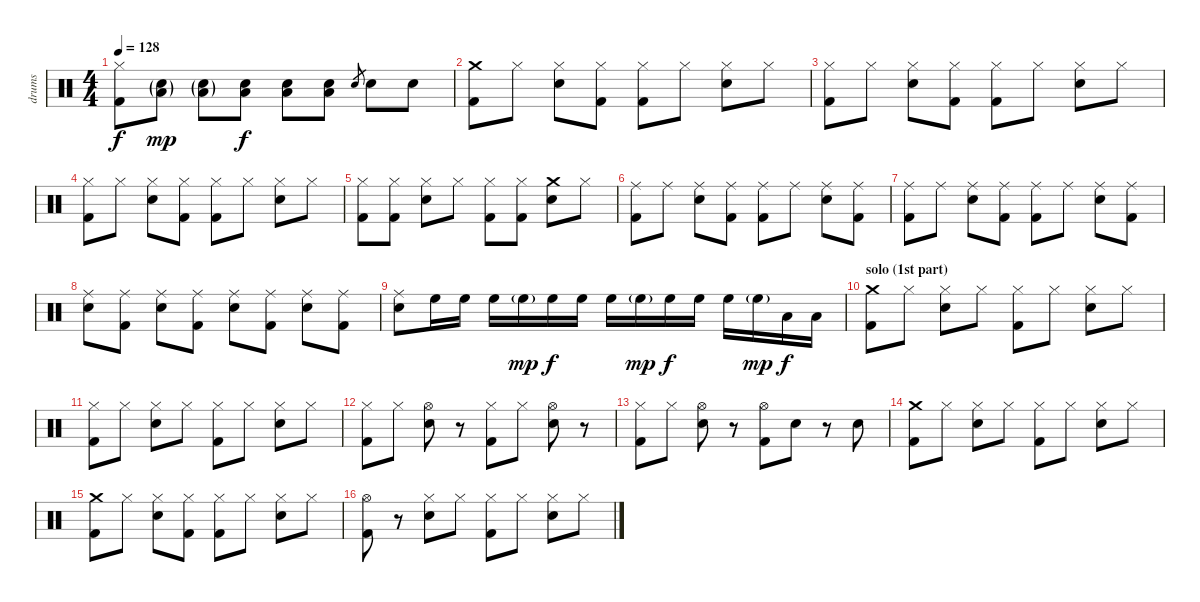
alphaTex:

\track ("drums" "drums") {instrument percussion}
\staff {score}
\articulation defaults
\ts (4 4)
\tempo 128
\clef neutral
\ks c
("Hi-Hat (closed)" "Kick (hit) 2").8{dy f} ("Snare (hit) 2"{g} "Low Floor Tom (hit)"{g}).8{dy mp} ("Snare (hit) 2"{g} "Low Floor Tom (hit)"{g}).8 ("Snare (hit) 2" "Low Floor Tom (hit)").8{dy f} ("Snare (hit) 2" "Low Floor Tom (hit)").8 ("Snare (hit) 2" "Low Floor Tom (hit)").8 "Snare (hit) 2".8{gr} "Snare (hit) 2".8 "Snare (hit) 2".8 |
("Crash medium (hit)" "Kick (hit) 2").8 "Hi-Hat (closed)".8 ("Hi-Hat (closed)" "Snare (hit) 2").8 ("Hi-Hat (closed)" "Kick (hit) 2").8 ("Hi-Hat (closed)" "Kick (hit) 2").8 "Hi-Hat (closed)".8 ("Hi-Hat (closed)" "Snare (hit) 2").8 "Hi-Hat (closed)".8 |
("Hi-Hat (closed)" "Kick (hit) 2").8 "Hi-Hat (closed)".8 ("Hi-Hat (closed)" "Snare (hit) 2").8 ("Hi-Hat (closed)" "Kick (hit) 2").8 ("Hi-Hat (closed)" "Kick (hit) 2").8 "Hi-Hat (closed)".8 ("Hi-Hat (closed)" "Snare (hit) 2").8 "Hi-Hat (closed)".8 |
("Hi-Hat (closed)" "Kick (hit) 2").8 "Hi-Hat (closed)".8 ("Hi-Hat (closed)" "Snare (hit) 2").8 ("Hi-Hat (closed)" "Kick (hit) 2").8 ("Hi-Hat (closed)" "Kick (hit) 2").8 "Hi-Hat (closed)".8 ("Hi-Hat (closed)" "Snare (hit) 2").8 "Hi-Hat (closed)".8 |
("Hi-Hat (closed)" "Kick (hit) 2").8 ("Hi-Hat (closed)" "Kick (hit) 2").8 ("Hi-Hat (closed)" "Snare (hit) 2").8 "Hi-Hat (closed)".8 ("Hi-Hat (closed)" "Kick (hit) 2").8 ("Hi-Hat (closed)" "Kick (hit) 2").8 ("Crash medium (hit)" "Snare (hit) 2").8 "Hi-Hat (closed)".8 |
("Ride (middle)" "Kick (hit) 2").8 "Ride (middle)".8 ("Ride (middle)" "Snare (hit) 2").8 ("Ride (middle)" "Kick (hit) 2").8 ("Ride (middle)" "Kick (hit) 2").8 "Ride (middle)".8 ("Ride (middle)" "Snare (hit) 2").8 ("Ride (middle)" "Kick (hit) 2").8 |
("Ride (middle)" "Kick (hit) 2").8 "Ride (middle)".8 ("Ride (middle)" "Snare (hit) 2").8 ("Ride (middle)" "Kick (hit) 2").8 ("Ride (middle)" "Kick (hit) 2").8 "Ride (middle)".8 ("Ride (middle)" "Snare (hit) 2").8 ("Ride (middle)" "Kick (hit) 2").8 |
("Ride (middle)" "Snare (hit) 2").8 ("Ride (middle)" "Kick (hit) 2").8 ("Ride (middle)" "Snare (hit) 2").8 ("Ride (middle)" "Kick (hit) 2").8 ("Ride (middle)" "Snare (hit) 2").8 ("Ride (middle)" "Kick (hit) 2").8 ("Ride (middle)" "Snare (hit) 2").8 ("Ride (middle)" "Kick (hit) 2").8 |
("Ride (middle)" "Snare (hit) 2").8 "High Floor Tom (hit)".16 "High Floor Tom (hit)".16 "High Floor Tom (hit)".16 "High Floor Tom (hit)"{g}.16{dy mp} "High Floor Tom (hit)".16{dy f} "High Floor Tom (hit)".16 "High Floor Tom (hit)".16 "High Floor Tom (hit)"{g}.16{dy mp} "High Floor Tom (hit)".16{dy f} "High Floor Tom (hit)".16 "High Floor Tom (hit)".16 "High Floor Tom (hit)"{g}.16{dy mp} "Low Floor Tom (hit)".16{dy f} "Low Floor Tom (hit)".16 |
\section ("" "solo (1st part)")
("Crash medium (hit)" "Kick (hit) 2").8 "Hi-Hat (closed)".8 ("Hi-Hat (closed)" "Snare (hit) 2").8 "Hi-Hat (closed)".8 ("Hi-Hat (closed)" "Kick (hit) 2").8 "Hi-Hat (closed)".8 ("Hi-Hat (closed)" "Snare (hit) 2").8 "Hi-Hat (closed)".8 |
("Hi-Hat (closed)" "Kick (hit) 2").8 "Hi-Hat (closed)".8 ("Hi-Hat (closed)" "Snare (hit) 2").8 "Hi-Hat (closed)".8 ("Hi-Hat (closed)" "Kick (hit) 2").8 "Hi-Hat (closed)".8 ("Hi-Hat (closed)" "Snare (hit) 2").8 "Hi-Hat (closed)".8 |
("Hi-Hat (closed)" "Kick (hit) 2").8 "Hi-Hat (closed)".8 ("Hi-Hat (open)" "Snare (hit) 2").8 r.8 ("Hi-Hat (closed)" "Kick (hit) 2").8 "Hi-Hat (closed)".8 ("Hi-Hat (open)" "Snare (hit) 2").8 r.8 |
("Hi-Hat (closed)" "Kick (hit) 2").8 "Hi-Hat (closed)".8 ("Hi-Hat (open)" "Snare (hit) 2").8 r.8 ("Hi-Hat (open)" "Kick (hit) 2").8 "Snare (hit) 2".8 r.8 "Snare (hit) 2".8 |
("Crash medium (hit)" "Kick (hit) 2").8 "Hi-Hat (closed)".8 ("Hi-Hat (closed)" "Snare (hit) 2").8 "Hi-Hat (closed)".8 ("Hi-Hat (closed)" "Kick (hit) 2").8 "Hi-Hat (closed)".8 ("Hi-Hat (closed)" "Snare (hit) 2").8 "Hi-Hat (closed)".8 |
("Crash medium (hit)" "Kick (hit) 2").8 "Hi-Hat (closed)".8 ("Hi-Hat (closed)" "Snare (hit) 2").8 ("Hi-Hat (closed)" "Kick (hit) 2").8 ("Hi-Hat (closed)" "Kick (hit) 2").8 "Hi-Hat (closed)".8 ("Hi-Hat (closed)" "Snare (hit) 2").8 "Hi-Hat (closed)".8 |
("Hi-Hat (open)" "Kick (hit) 2").8 r.8 ("Hi-Hat (closed)" "Snare (hit) 2").8 "Hi-Hat (closed)".8 ("Hi-Hat (closed)" "Kick (hit) 2").8 "Hi-Hat (closed)".8 ("Hi-Hat (closed)" "Snare (hit) 2").8 "Hi-Hat (closed)".8
